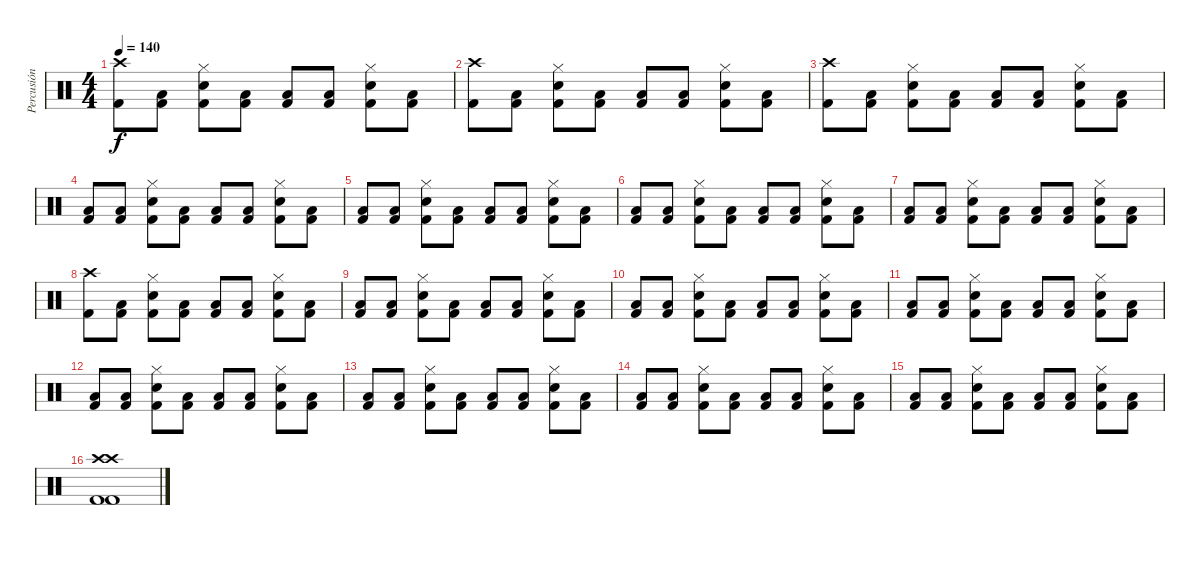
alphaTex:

\track ("Percusión" "Percusión") {instrument percussion}
\staff {score}
\articulation defaults
\ts (4 4)
\tempo 140
\clef neutral
\ks c
("Kick (hit) 2" "Crash high (hit)").8{dy f} ("Kick (hit) 2" "Low Tom (hit)").8 ("Kick (hit) 2" "Snare (hit) 2" "Hi-Hat (closed)").8 ("Kick (hit) 2" "Low Tom (hit)").8 ("Kick (hit) 2" "Low Tom (hit)").8 ("Kick (hit) 2" "Low Tom (hit)").8 ("Kick (hit) 2" "Snare (hit) 2" "Hi-Hat (closed)").8 ("Kick (hit) 2" "Low Tom (hit)").8 |
("Kick (hit) 2" "Crash high (hit)").8 ("Kick (hit) 2" "Low Tom (hit)").8 ("Kick (hit) 2" "Snare (hit) 2" "Hi-Hat (closed)").8 ("Kick (hit) 2" "Low Tom (hit)").8 ("Kick (hit) 2" "Low Tom (hit)").8 ("Kick (hit) 2" "Low Tom (hit)").8 ("Kick (hit) 2" "Snare (hit) 2" "Hi-Hat (closed)").8 ("Kick (hit) 2" "Low Tom (hit)").8 |
("Kick (hit) 2" "Crash high (hit)").8 ("Kick (hit) 2" "Low Tom (hit)").8 ("Kick (hit) 2" "Snare (hit) 2" "Hi-Hat (closed)").8 ("Kick (hit) 2" "Low Tom (hit)").8 ("Kick (hit) 2" "Low Tom (hit)").8 ("Kick (hit) 2" "Low Tom (hit)").8 ("Kick (hit) 2" "Snare (hit) 2" "Hi-Hat (closed)").8 ("Kick (hit) 2" "Low Tom (hit)").8 |
("Kick (hit) 2" "Low Tom (hit)").8 ("Kick (hit) 2" "Low Tom (hit)").8 ("Kick (hit) 2" "Snare (hit) 2" "Hi-Hat (closed)").8 ("Kick (hit) 2" "Low Tom (hit)").8 ("Kick (hit) 2" "Low Tom (hit)").8 ("Kick (hit) 2" "Low Tom (hit)").8 ("Kick (hit) 2" "Snare (hit) 2" "Hi-Hat (closed)").8 ("Kick (hit) 2" "Low Tom (hit)").8 |
("Kick (hit) 2" "Low Tom (hit)").8 ("Kick (hit) 2" "Low Tom (hit)").8 ("Kick (hit) 2" "Snare (hit) 2" "Hi-Hat (closed)").8 ("Kick (hit) 2" "Low Tom (hit)").8 ("Kick (hit) 2" "Low Tom (hit)").8 ("Kick (hit) 2" "Low Tom (hit)").8 ("Kick (hit) 2" "Snare (hit) 2" "Hi-Hat (closed)").8 ("Kick (hit) 2" "Low Tom (hit)").8 |
("Kick (hit) 2" "Low Tom (hit)").8 ("Kick (hit) 2" "Low Tom (hit)").8 ("Kick (hit) 2" "Snare (hit) 2" "Hi-Hat (closed)").8 ("Kick (hit) 2" "Low Tom (hit)").8 ("Kick (hit) 2" "Low Tom (hit)").8 ("Kick (hit) 2" "Low Tom (hit)").8 ("Kick (hit) 2" "Snare (hit) 2" "Hi-Hat (closed)").8 ("Kick (hit) 2" "Low Tom (hit)").8 |
("Kick (hit) 2" "Low Tom (hit)").8 ("Kick (hit) 2" "Low Tom (hit)").8 ("Kick (hit) 2" "Snare (hit) 2" "Hi-Hat (closed)").8 ("Kick (hit) 2" "Low Tom (hit)").8 ("Kick (hit) 2" "Low Tom (hit)").8 ("Kick (hit) 2" "Low Tom (hit)").8 ("Kick (hit) 2" "Snare (hit) 2" "Hi-Hat (closed)").8 ("Kick (hit) 2" "Low Tom (hit)").8 |
("Kick (hit) 2" "Crash high (hit)").8 ("Kick (hit) 2" "Low Tom (hit)").8 ("Kick (hit) 2" "Snare (hit) 2" "Hi-Hat (closed)").8 ("Kick (hit) 2" "Low Tom (hit)").8 ("Kick (hit) 2" "Low Tom (hit)").8 ("Kick (hit) 2" "Low Tom (hit)").8 ("Kick (hit) 2" "Snare (hit) 2" "Hi-Hat (closed)").8 ("Kick (hit) 2" "Low Tom (hit)").8 |
("Kick (hit) 2" "Low Tom (hit)").8 ("Kick (hit) 2" "Low Tom (hit)").8 ("Kick (hit) 2" "Snare (hit) 2" "Hi-Hat (closed)").8 ("Kick (hit) 2" "Low Tom (hit)").8 ("Kick (hit) 2" "Low Tom (hit)").8 ("Kick (hit) 2" "Low Tom (hit)").8 ("Kick (hit) 2" "Snare (hit) 2" "Hi-Hat (closed)").8 ("Kick (hit) 2" "Low Tom (hit)").8 |
("Kick (hit) 2" "Low Tom (hit)").8 ("Kick (hit) 2" "Low Tom (hit)").8 ("Kick (hit) 2" "Snare (hit) 2" "Hi-Hat (closed)").8 ("Kick (hit) 2" "Low Tom (hit)").8 ("Kick (hit) 2" "Low Tom (hit)").8 ("Kick (hit) 2" "Low Tom (hit)").8 ("Kick (hit) 2" "Snare (hit) 2" "Hi-Hat (closed)").8 ("Kick (hit) 2" "Low Tom (hit)").8 |
("Kick (hit) 2" "Low Tom (hit)").8 ("Kick (hit) 2" "Low Tom (hit)").8 ("Kick (hit) 2" "Snare (hit) 2" "Hi-Hat (closed)").8 ("Kick (hit) 2" "Low Tom (hit)").8 ("Kick (hit) 2" "Low Tom (hit)").8 ("Kick (hit) 2" "Low Tom (hit)").8 ("Kick (hit) 2" "Snare (hit) 2" "Hi-Hat (closed)").8 ("Kick (hit) 2" "Low Tom (hit)").8 |
("Kick (hit) 2" "Low Tom (hit)").8 ("Kick (hit) 2" "Low Tom (hit)").8 ("Kick (hit) 2" "Snare (hit) 2" "Hi-Hat (closed)").8 ("Kick (hit) 2" "Low Tom (hit)").8 ("Kick (hit) 2" "Low Tom (hit)").8 ("Kick (hit) 2" "Low Tom (hit)").8 ("Kick (hit) 2" "Snare (hit) 2" "Hi-Hat (closed)").8 ("Kick (hit) 2" "Low Tom (hit)").8 |
("Kick (hit) 2" "Low Tom (hit)").8 ("Kick (hit) 2" "Low Tom (hit)").8 ("Kick (hit) 2" "Snare (hit) 2" "Hi-Hat (closed)").8 ("Kick (hit) 2" "Low Tom (hit)").8 ("Kick (hit) 2" "Low Tom (hit)").8 ("Kick (hit) 2" "Low Tom (hit)").8 ("Kick (hit) 2" "Snare (hit) 2" "Hi-Hat (closed)").8 ("Kick (hit) 2" "Low Tom (hit)").8 |
("Kick (hit) 2" "Low Tom (hit)").8 ("Kick (hit) 2" "Low Tom (hit)").8 ("Kick (hit) 2" "Snare (hit) 2" "Hi-Hat (closed)").8 ("Kick (hit) 2" "Low Tom (hit)").8 ("Kick (hit) 2" "Low Tom (hit)").8 ("Kick (hit) 2" "Low Tom (hit)").8 ("Kick (hit) 2" "Snare (hit) 2" "Hi-Hat (closed)").8 ("Kick (hit) 2" "Low Tom (hit)").8 |
("Kick (hit) 2" "Low Tom (hit)").8 ("Kick (hit) 2" "Low Tom (hit)").8 ("Kick (hit) 2" "Snare (hit) 2" "Hi-Hat (closed)").8 ("Kick (hit) 2" "Low Tom (hit)").8 ("Kick (hit) 2" "Low Tom (hit)").8 ("Kick (hit) 2" "Low Tom (hit)").8 ("Kick (hit) 2" "Snare (hit) 2" "Hi-Hat (closed)").8 ("Kick (hit) 2" "Low Tom (hit)").8 |
("Kick (hit) 2" "Kick (hit) 2" "Crash high (hit)" "Crash high (hit)").1
